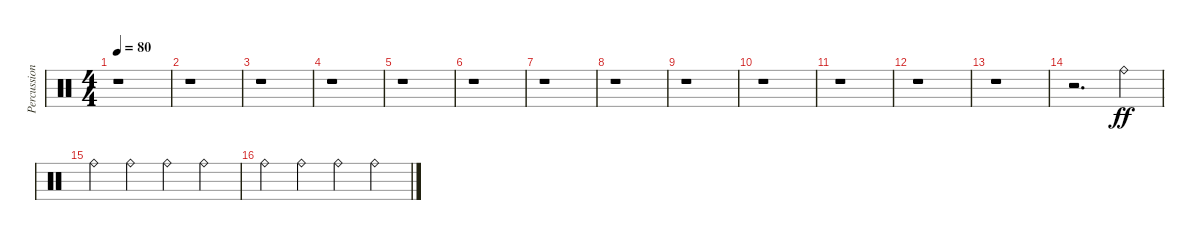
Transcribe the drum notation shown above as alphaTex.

\track ("Percussions" "Percussion") {instrument percussion}
\staff {score}
\articulation defaults
\ts (4 4)
\tempo 80
\clef neutral
\ks c
r.1{dy ff} |
r.1 |
r.1 |
r.1 |
r.1 |
r.1 |
r.1 |
r.1 |
r.1 |
r.1 |
r.1 |
r.1 |
r.1 |
r.2{d} "Ride (bell)".4 |
"Ride (bell)".4 "Ride (bell)".4 "Ride (bell)".4 "Ride (bell)".4 |
"Ride (bell)".4 "Ride (bell)".4 "Ride (bell)".4 "Ride (bell)".4
